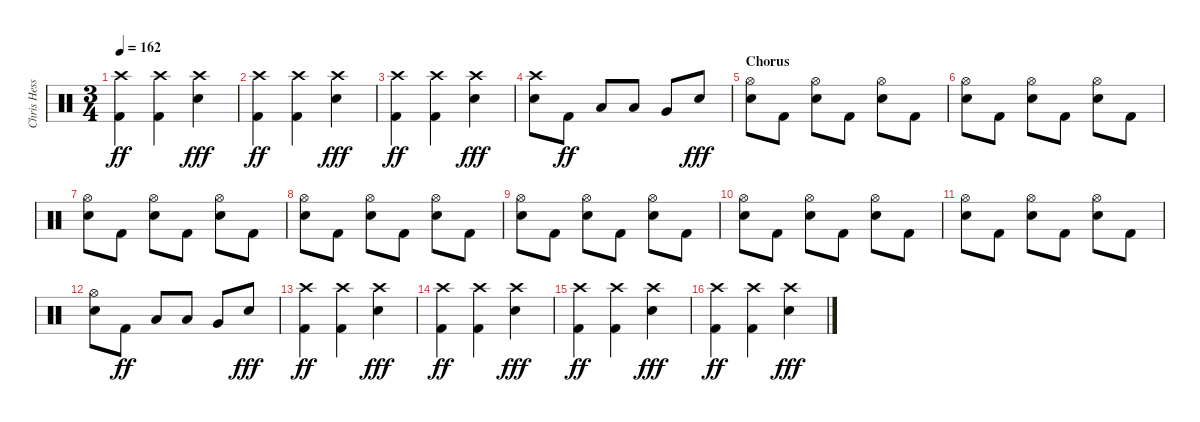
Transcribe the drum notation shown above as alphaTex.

\track ("Chris Hesse" "Chris Hess") {instrument percussion}
\staff {score}
\articulation defaults
\ts (3 4)
\tempo 162
\clef neutral
\ks c
("Crash high (hit)" "Kick (hit) 2").4{dy ff} ("Crash high (hit)" "Kick (hit) 2").4 ("Crash high (hit)" "Snare (hit) 2").4{dy fff} |
("Crash high (hit)" "Kick (hit) 2").4{dy ff} ("Crash high (hit)" "Kick (hit) 2").4 ("Crash high (hit)" "Snare (hit) 2").4{dy fff} |
("Crash high (hit)" "Kick (hit) 2").4{dy ff} ("Crash high (hit)" "Kick (hit) 2").4 ("Crash high (hit)" "Snare (hit) 2").4{dy fff} |
("Crash high (hit)" "Snare (hit) 2").8 "Kick (hit) 2".8{dy ff} "Low Floor Tom (hit)".8 "Low Tom (hit)".8 "Very Low Tom (hit)".8 "Snare (hit) 2".8{dy fff} |
\section ("" "Chorus")
("Hi-Hat (open)" "Snare (hit) 2").8 "Kick (hit) 2".8 ("Hi-Hat (open)" "Snare (hit) 2").8 "Kick (hit) 2".8 ("Hi-Hat (open)" "Snare (hit) 2").8 "Kick (hit) 2".8 |
("Hi-Hat (open)" "Snare (hit) 2").8 "Kick (hit) 2".8 ("Hi-Hat (open)" "Snare (hit) 2").8 "Kick (hit) 2".8 ("Hi-Hat (open)" "Snare (hit) 2").8 "Kick (hit) 2".8 |
("Hi-Hat (open)" "Snare (hit) 2").8 "Kick (hit) 2".8 ("Hi-Hat (open)" "Snare (hit) 2").8 "Kick (hit) 2".8 ("Hi-Hat (open)" "Snare (hit) 2").8 "Kick (hit) 2".8 |
("Hi-Hat (open)" "Snare (hit) 2").8 "Kick (hit) 2".8 ("Hi-Hat (open)" "Snare (hit) 2").8 "Kick (hit) 2".8 ("Hi-Hat (open)" "Snare (hit) 2").8 "Kick (hit) 2".8 |
("Hi-Hat (open)" "Snare (hit) 2").8 "Kick (hit) 2".8 ("Hi-Hat (open)" "Snare (hit) 2").8 "Kick (hit) 2".8 ("Hi-Hat (open)" "Snare (hit) 2").8 "Kick (hit) 2".8 |
("Hi-Hat (open)" "Snare (hit) 2").8 "Kick (hit) 2".8 ("Hi-Hat (open)" "Snare (hit) 2").8 "Kick (hit) 2".8 ("Hi-Hat (open)" "Snare (hit) 2").8 "Kick (hit) 2".8 |
("Hi-Hat (open)" "Snare (hit) 2").8 "Kick (hit) 2".8 ("Hi-Hat (open)" "Snare (hit) 2").8 "Kick (hit) 2".8 ("Hi-Hat (open)" "Snare (hit) 2").8 "Kick (hit) 2".8 |
("Hi-Hat (open)" "Snare (hit) 2").8 "Kick (hit) 2".8{dy ff} "Low Floor Tom (hit)".8 "Low Tom (hit)".8 "Very Low Tom (hit)".8 "Snare (hit) 2".8{dy fff} |
("Crash high (hit)" "Kick (hit) 2").4{dy ff} ("Crash high (hit)" "Kick (hit) 2").4 ("Crash high (hit)" "Snare (hit) 2").4{dy fff} |
("Crash high (hit)" "Kick (hit) 2").4{dy ff} ("Crash high (hit)" "Kick (hit) 2").4 ("Crash high (hit)" "Snare (hit) 2").4{dy fff} |
("Crash high (hit)" "Kick (hit) 2").4{dy ff} ("Crash high (hit)" "Kick (hit) 2").4 ("Crash high (hit)" "Snare (hit) 2").4{dy fff} |
("Crash high (hit)" "Kick (hit) 2").4{dy ff} ("Crash high (hit)" "Kick (hit) 2").4 ("Crash high (hit)" "Snare (hit) 2").4{dy fff}
